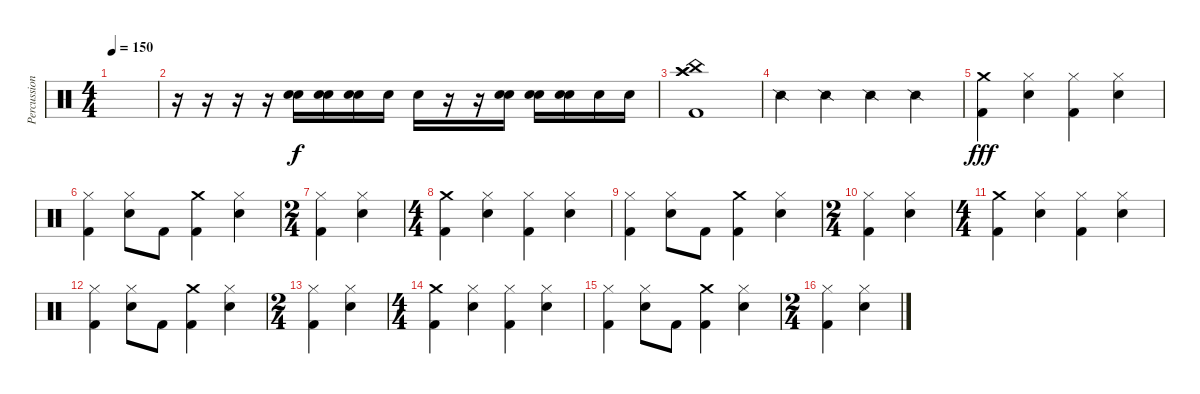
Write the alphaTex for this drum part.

\track ("Percussion" "Percussion") {instrument percussion}
\staff {score}
\articulation defaults
\ts (4 4)
\tempo 150
\clef neutral
\ks c
|
r.16 r.16 r.16 r.16 ("Snare (hit) 2" "Snare (hit) 2").16 ("Snare (hit) 2" "Snare (hit) 2").16 ("Snare (hit) 2" "Snare (hit) 2").16 "Snare (hit) 2".16 "Snare (hit) 2".16 r.16 r.16 ("Snare (hit) 2" "Snare (hit) 2").16 ("Snare (hit) 2" "Snare (hit) 2").16 ("Snare (hit) 2" "Snare (hit) 2").16 "Snare (hit) 2".16 "Snare (hit) 2".16 |
("Crash high (hit)" "Kick (hit) 2" "China (hit)" "Crash high (hit)").1 |
"Snare (side stick) 2".4 "Snare (side stick) 2".4 "Snare (side stick) 2".4 "Snare (side stick) 2".4 |
("Kick (hit) 2" "Crash medium (hit)").4{dy fff} ("Hi-Hat (closed)" "Snare (hit) 2").4 ("Hi-Hat (closed)" "Kick (hit) 2").4 ("Snare (hit) 2" "Hi-Hat (closed)").4 |
("Hi-Hat (closed)" "Kick (hit) 2").4 ("Snare (hit) 2" "Hi-Hat (closed)").8 "Kick (hit) 2".8 ("Kick (hit) 2" "Crash medium (hit)").4 ("Hi-Hat (closed)" "Snare (hit) 2").4 |
\ts (2 4)
("Hi-Hat (closed)" "Kick (hit) 2").4 ("Snare (hit) 2" "Hi-Hat (closed)").4 |
\ts (4 4)
("Kick (hit) 2" "Crash medium (hit)").4 ("Hi-Hat (closed)" "Snare (hit) 2").4 ("Hi-Hat (closed)" "Kick (hit) 2").4 ("Snare (hit) 2" "Hi-Hat (closed)").4 |
("Hi-Hat (closed)" "Kick (hit) 2").4 ("Snare (hit) 2" "Hi-Hat (closed)").8 "Kick (hit) 2".8 ("Kick (hit) 2" "Crash medium (hit)").4 ("Hi-Hat (closed)" "Snare (hit) 2").4 |
\ts (2 4)
("Hi-Hat (closed)" "Kick (hit) 2").4 ("Snare (hit) 2" "Hi-Hat (closed)").4 |
\ts (4 4)
("Kick (hit) 2" "Crash medium (hit)").4 ("Hi-Hat (closed)" "Snare (hit) 2").4 ("Hi-Hat (closed)" "Kick (hit) 2").4 ("Snare (hit) 2" "Hi-Hat (closed)").4 |
("Hi-Hat (closed)" "Kick (hit) 2").4 ("Snare (hit) 2" "Hi-Hat (closed)").8 "Kick (hit) 2".8 ("Kick (hit) 2" "Crash medium (hit)").4 ("Hi-Hat (closed)" "Snare (hit) 2").4 |
\ts (2 4)
("Hi-Hat (closed)" "Kick (hit) 2").4 ("Snare (hit) 2" "Hi-Hat (closed)").4 |
\ts (4 4)
("Kick (hit) 2" "Crash medium (hit)").4 ("Hi-Hat (closed)" "Snare (hit) 2").4 ("Hi-Hat (closed)" "Kick (hit) 2").4 ("Snare (hit) 2" "Hi-Hat (closed)").4 |
("Hi-Hat (closed)" "Kick (hit) 2").4 ("Snare (hit) 2" "Hi-Hat (closed)").8 "Kick (hit) 2".8 ("Kick (hit) 2" "Crash medium (hit)").4 ("Hi-Hat (closed)" "Snare (hit) 2").4 |
\ts (2 4)
("Hi-Hat (closed)" "Kick (hit) 2").4 ("Snare (hit) 2" "Hi-Hat (closed)").4
